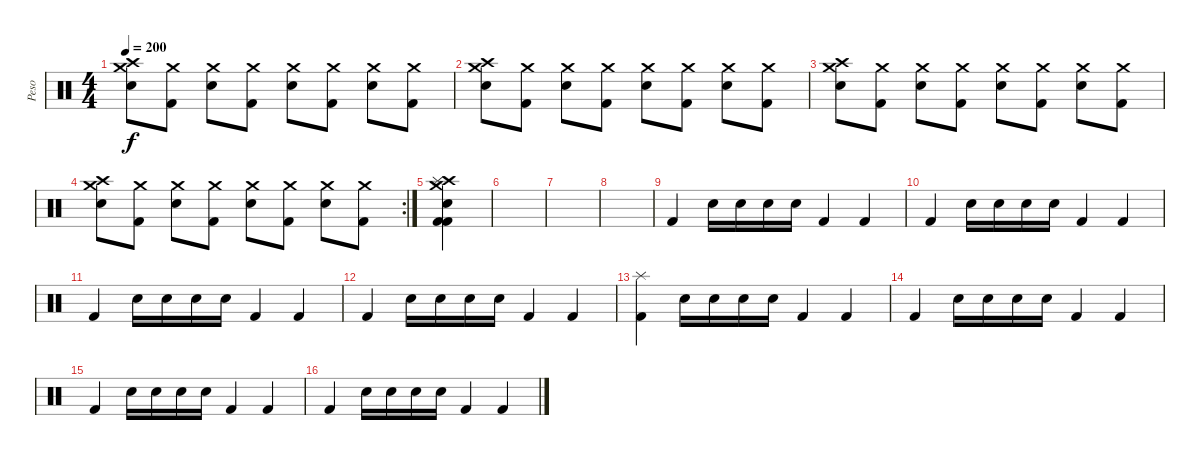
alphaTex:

\track ("Peso" "Peso") {instrument percussion}
\staff {score}
\articulation defaults
\ts (4 4)
\tempo 200
\clef neutral
\ks c
("Crash high (hit)" "Crash medium (hit)" "Snare (hit) 2").8{dy f} ("Crash medium (hit)"{x} "Kick (hit) 2").8 ("Crash medium (hit)" "Snare (hit) 2").8 ("Crash medium (hit)"{x} "Kick (hit) 2").8 ("Crash medium (hit)" "Snare (hit) 2").8 ("Crash medium (hit)"{x} "Kick (hit) 2").8 ("Crash medium (hit)" "Snare (hit) 2").8 ("Crash medium (hit)"{x} "Kick (hit) 2").8 |
("Crash high (hit)" "Crash medium (hit)" "Snare (hit) 2").8 ("Crash medium (hit)"{x} "Kick (hit) 2").8 ("Crash medium (hit)" "Snare (hit) 2").8 ("Crash medium (hit)"{x} "Kick (hit) 2").8 ("Crash medium (hit)" "Snare (hit) 2").8 ("Crash medium (hit)"{x} "Kick (hit) 2").8 ("Crash medium (hit)" "Snare (hit) 2").8 ("Crash medium (hit)"{x} "Kick (hit) 2").8 |
("Crash high (hit)" "Crash medium (hit)" "Snare (hit) 2").8 ("Crash medium (hit)"{x} "Kick (hit) 2").8 ("Crash medium (hit)" "Snare (hit) 2").8 ("Crash medium (hit)"{x} "Kick (hit) 2").8 ("Crash medium (hit)" "Snare (hit) 2").8 ("Crash medium (hit)"{x} "Kick (hit) 2").8 ("Crash medium (hit)" "Snare (hit) 2").8 ("Crash medium (hit)"{x} "Kick (hit) 2").8 |
\rc 2
("Crash high (hit)" "Crash medium (hit)" "Snare (hit) 2").8 ("Crash medium (hit)"{x} "Kick (hit) 2").8 ("Crash medium (hit)" "Snare (hit) 2").8 ("Crash medium (hit)"{x} "Kick (hit) 2").8 ("Crash medium (hit)" "Snare (hit) 2").8 ("Crash medium (hit)"{x} "Kick (hit) 2").8 ("Crash medium (hit)" "Snare (hit) 2").8 ("Crash medium (hit)"{x} "Kick (hit) 2").8 |
("Snare (hit) 2" "Crash high (hit)" "Splash (hit)" "Crash medium (hit)" "Kick (hit) 2" "Kick (hit) 2").4 |
|
|
|
"Kick (hit) 2".4 "Snare (hit) 2".16 "Snare (hit) 2".16 "Snare (hit) 2".16 "Snare (hit) 2".16 "Kick (hit) 2".4 "Kick (hit) 2".4 |
"Kick (hit) 2".4 "Snare (hit) 2".16 "Snare (hit) 2".16 "Snare (hit) 2".16 "Snare (hit) 2".16 "Kick (hit) 2".4 "Kick (hit) 2".4 |
"Kick (hit) 2".4 "Snare (hit) 2".16 "Snare (hit) 2".16 "Snare (hit) 2".16 "Snare (hit) 2".16 "Kick (hit) 2".4 "Kick (hit) 2".4 |
"Kick (hit) 2".4 "Snare (hit) 2".16 "Snare (hit) 2".16 "Snare (hit) 2".16 "Snare (hit) 2".16 "Kick (hit) 2".4 "Kick (hit) 2".4 |
("Splash (hit)" "Kick (hit) 2").4 "Snare (hit) 2".16 "Snare (hit) 2".16 "Snare (hit) 2".16 "Snare (hit) 2".16 "Kick (hit) 2".4 "Kick (hit) 2".4 |
"Kick (hit) 2".4 "Snare (hit) 2".16 "Snare (hit) 2".16 "Snare (hit) 2".16 "Snare (hit) 2".16 "Kick (hit) 2".4 "Kick (hit) 2".4 |
"Kick (hit) 2".4 "Snare (hit) 2".16 "Snare (hit) 2".16 "Snare (hit) 2".16 "Snare (hit) 2".16 "Kick (hit) 2".4 "Kick (hit) 2".4 |
"Kick (hit) 2".4 "Snare (hit) 2".16 "Snare (hit) 2".16 "Snare (hit) 2".16 "Snare (hit) 2".16 "Kick (hit) 2".4 "Kick (hit) 2".4
